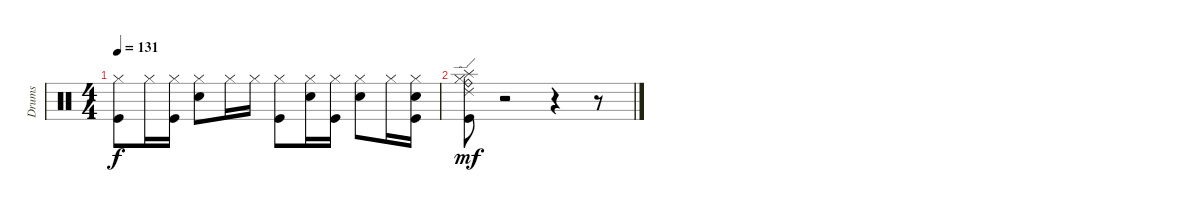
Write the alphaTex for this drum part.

\track ("Drums" "Drums") {instrument percussion}
\staff {score}
\articulation defaults
\ts (4 4)
\tempo 131
\clef neutral
\ks c
("Hi-Hat (closed)" "Kick (hit)").8{dy f} "Hi-Hat (closed)".16 ("Hi-Hat (closed)" "Kick (hit)").16 ("Hi-Hat (closed)" "Electric Snare (hit)").8 "Hi-Hat (closed)".16 "Hi-Hat (closed)".16 ("Hi-Hat (closed)" "Kick (hit)").8 ("Hi-Hat (closed)" "Electric Snare (hit)").16 ("Hi-Hat (closed)" "Kick (hit)").16 ("Hi-Hat (closed)" "Electric Snare (hit)").8 "Hi-Hat (closed)".16 ("Hi-Hat (closed)" "Electric Snare (hit)" "Kick (hit)").16 |
("Hi-Hat (closed)" "Splash (hit)" "Ride (bell)" "Ride (edge) 2" "Kick (hit)").8{dy mf} r.2 r.4 r.8
